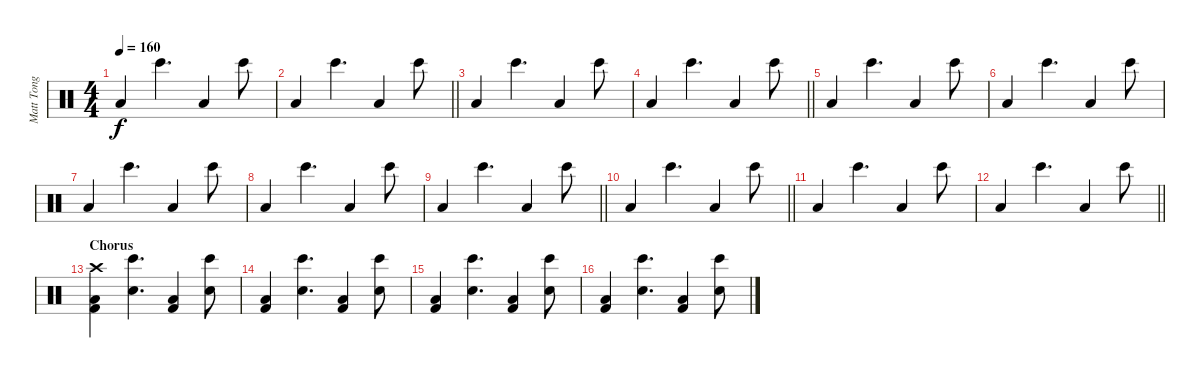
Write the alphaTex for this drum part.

\track ("Matt Tong - Drums" "Matt Tong ") {instrument percussion}
\staff {score}
\articulation defaults
\ts (4 4)
\tempo 160
\clef neutral
\ks c "Low Floor Tom (hit)".4{dy f} "Bongo High (hit)".4{d} "Low Floor Tom (hit)".4 "Bongo High (hit)".8
|
\barLineRight lightlight "Low Floor Tom (hit)".4 "Bongo High (hit)".4{d} "Low Floor Tom (hit)".4 "Bongo High (hit)".8
|
"Low Floor Tom (hit)".4 "Bongo High (hit)".4{d} "Low Floor Tom (hit)".4 "Bongo High (hit)".8 |
\barLineRight lightlight "Low Floor Tom (hit)".4 "Bongo High (hit)".4{d} "Low Floor Tom (hit)".4 "Bongo High (hit)".8
|
"Low Floor Tom (hit)".4 "Bongo High (hit)".4{d} "Low Floor Tom (hit)".4 "Bongo High (hit)".8 |
"Low Floor Tom (hit)".4 "Bongo High (hit)".4{d} "Low Floor Tom (hit)".4 "Bongo High (hit)".8 |
"Low Floor Tom (hit)".4 "Bongo High (hit)".4{d} "Low Floor Tom (hit)".4 "Bongo High (hit)".8 |
"Low Floor Tom (hit)".4 "Bongo High (hit)".4{d} "Low Floor Tom (hit)".4 "Bongo High (hit)".8 |
\barLineRight lightlight "Low Floor Tom (hit)".4 "Bongo High (hit)".4{d} "Low Floor Tom (hit)".4 "Bongo High (hit)".8
|
\barLineRight lightlight "Low Floor Tom (hit)".4 "Bongo High (hit)".4{d} "Low Floor Tom (hit)".4 "Bongo High (hit)".8
|
"Low Floor Tom (hit)".4 "Bongo High (hit)".4{d} "Low Floor Tom (hit)".4 "Bongo High (hit)".8 |
\barLineRight lightlight "Low Floor Tom (hit)".4 "Bongo High (hit)".4{d} "Low Floor Tom (hit)".4 "Bongo High (hit)".8
|
\section ("" "Chorus")
("Kick (hit) 2" "Low Floor Tom (hit)" "Crash high (hit)").4 ("Bongo High (hit)" "Snare (hit) 2").4{d} ("Kick (hit) 2" "Low Floor Tom (hit)").4 ("Bongo High (hit)" "Snare (hit) 2").8 |
("Kick (hit) 2" "Low Floor Tom (hit)").4 ("Bongo High (hit)" "Snare (hit) 2").4{d} ("Kick (hit) 2" "Low Floor Tom (hit)").4 ("Bongo High (hit)" "Snare (hit) 2").8 |
("Kick (hit) 2" "Low Floor Tom (hit)").4 ("Bongo High (hit)" "Snare (hit) 2").4{d} ("Kick (hit) 2" "Low Floor Tom (hit)").4 ("Bongo High (hit)" "Snare (hit) 2").8 |
("Kick (hit) 2" "Low Floor Tom (hit)").4 ("Bongo High (hit)" "Snare (hit) 2").4{d} ("Kick (hit) 2" "Low Floor Tom (hit)").4 ("Bongo High (hit)" "Snare (hit) 2").8
